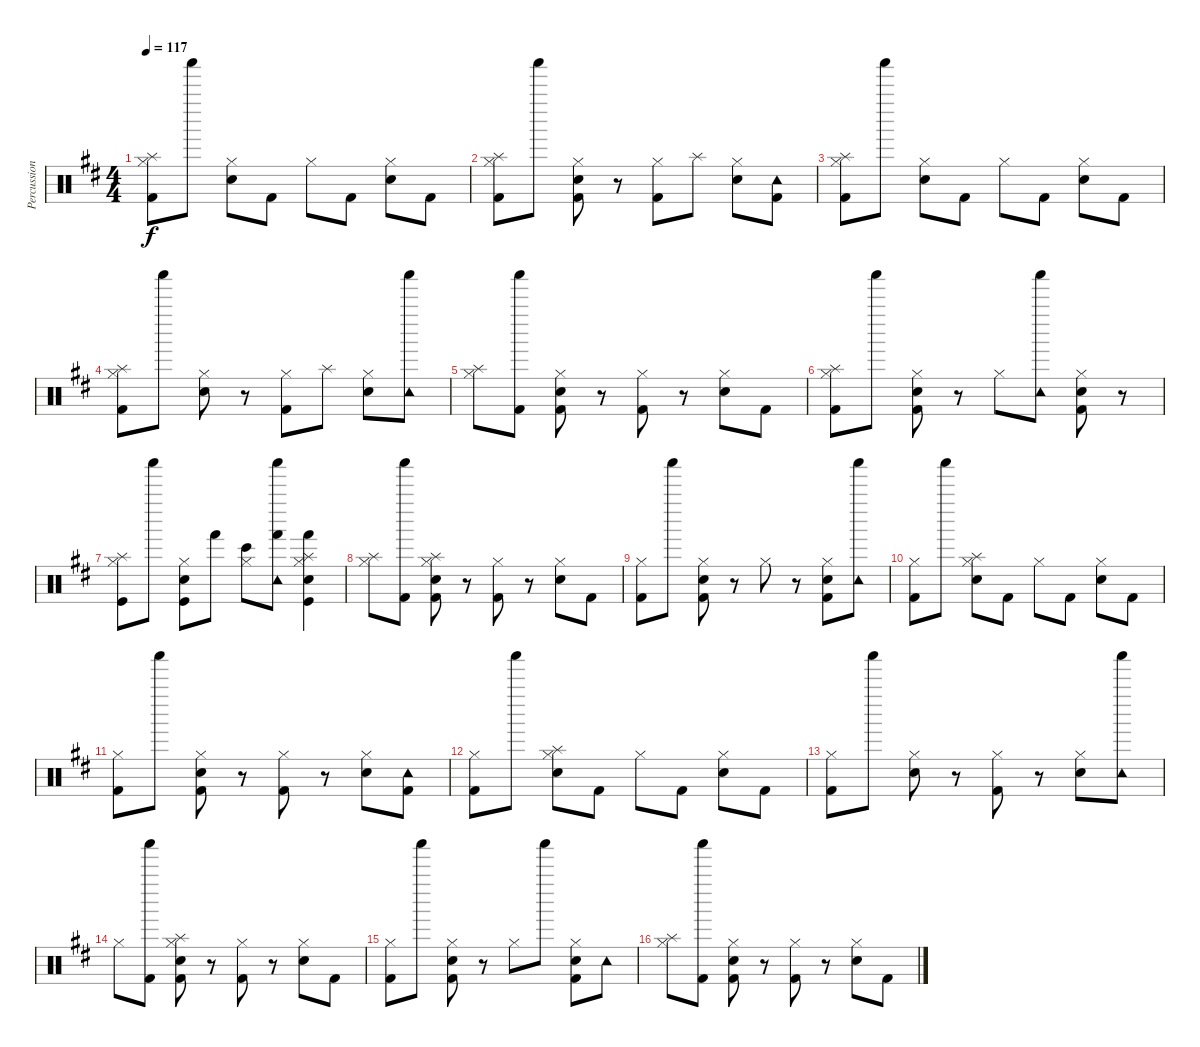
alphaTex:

\track ("Percussion" "Percussion") {instrument percussion}
\staff {score}
\articulation defaults
\ts (4 4)
\tempo 117
\clef neutral
\ks d
("Hi-Hat (closed)" "Splash (hit)" "Kick (hit) 2").8{dy f} "Shaker (hit)".8 ("Hi-Hat (closed)" "Snare (hit) 2").8 "Kick (hit) 2".8 "Hi-Hat (closed)".8 "Kick (hit) 2".8 ("Hi-Hat (closed)" "Snare (hit) 2").8 "Kick (hit) 2".8 |
("Hi-Hat (closed)" "Splash (hit)" "Kick (hit) 2").8 "Shaker (hit)".8 ("Hi-Hat (closed)" "Snare (hit) 2" "Kick (hit) 2").8 r.8 ("Hi-Hat (closed)" "Kick (hit) 2").8 "Splash (hit)".8 ("Hi-Hat (closed)" "Snare (hit) 2").8 ("Tambourine (hit)" "Kick (hit) 2").8 |
("Hi-Hat (closed)" "Splash (hit)" "Kick (hit) 2").8 "Shaker (hit)".8 ("Hi-Hat (closed)" "Snare (hit) 2").8 "Kick (hit) 2".8 "Hi-Hat (closed)".8 "Kick (hit) 2".8 ("Hi-Hat (closed)" "Snare (hit) 2").8 "Kick (hit) 2".8 |
("Hi-Hat (closed)" "Splash (hit)" "Kick (hit) 2").8 "Shaker (hit)".8 ("Hi-Hat (closed)" "Snare (hit) 2").8 r.8 ("Hi-Hat (closed)" "Kick (hit) 2").8 "Splash (hit)".8 ("Hi-Hat (closed)" "Snare (hit) 2").8 ("Shaker (hit)" "Tambourine (hit)").8 |
("Hi-Hat (closed)" "Splash (hit)").8 ("Shaker (hit)" "Kick (hit) 2").8 ("Hi-Hat (closed)" "Snare (hit) 2" "Kick (hit) 2").8 r.8 ("Hi-Hat (closed)" "Kick (hit) 2").8 r.8 ("Hi-Hat (closed)" "Snare (hit) 2").8 "Kick (hit) 2".8 |
("Hi-Hat (closed)" "Splash (hit)" "Kick (hit) 2").8 "Shaker (hit)".8 ("Hi-Hat (closed)" "Snare (hit) 2" "Kick (hit) 2").8 r.8 "Hi-Hat (closed)".8 ("Shaker (hit)" "Tambourine (hit)").8 ("Hi-Hat (closed)" "Snare (hit) 2" "Kick (hit) 2").8 r.8 |
("Hi-Hat (closed)" "Splash (hit)" "Kick (hit)").8 "Shaker (hit)".8 ("Hi-Hat (closed)" "Snare (hit) 2" "Kick (hit)").8 "Hand (hit)".8 ("Hi-Hat (closed)" "Bongo High (hit)").8 ("Shaker (hit)" "Hand (hit)" "Tambourine (hit)").8 ("Hi-Hat (closed)" "Splash (hit)" "Hand (hit)" "Snare (hit) 2" "Kick (hit)").4 |
("Hi-Hat (closed)" "Splash (hit)").8 ("Shaker (hit)" "Kick (hit) 2").8 ("Hi-Hat (closed)" "Splash (hit)" "Snare (hit) 2" "Kick (hit) 2").8 r.8 ("Hi-Hat (closed)" "Kick (hit) 2").8 r.8 ("Hi-Hat (closed)" "Snare (hit) 2").8 "Kick (hit) 2".8 |
("Hi-Hat (closed)" "Kick (hit) 2").8 "Shaker (hit)".8 ("Hi-Hat (closed)" "Snare (hit) 2" "Kick (hit) 2").8 r.8 "Hi-Hat (closed)".8 r.8 ("Hi-Hat (closed)" "Snare (hit) 2" "Kick (hit) 2").8 ("Shaker (hit)" "Tambourine (hit)").8 |
("Hi-Hat (closed)" "Kick (hit) 2").8 "Shaker (hit)".8 ("Hi-Hat (closed)" "Splash (hit)" "Snare (hit) 2").8 "Kick (hit) 2".8 "Hi-Hat (closed)".8 "Kick (hit) 2".8 ("Hi-Hat (closed)" "Snare (hit) 2").8 "Kick (hit) 2".8 |
("Hi-Hat (closed)" "Kick (hit) 2").8 "Shaker (hit)".8 ("Hi-Hat (closed)" "Snare (hit) 2" "Kick (hit) 2").8 r.8 ("Hi-Hat (closed)" "Kick (hit) 2").8 r.8 ("Hi-Hat (closed)" "Snare (hit) 2").8 ("Tambourine (hit)" "Kick (hit) 2").8 |
("Hi-Hat (closed)" "Kick (hit) 2").8 "Shaker (hit)".8 ("Hi-Hat (closed)" "Splash (hit)" "Snare (hit) 2").8 "Kick (hit) 2".8 "Hi-Hat (closed)".8 "Kick (hit) 2".8 ("Hi-Hat (closed)" "Snare (hit) 2").8 "Kick (hit) 2".8 |
("Hi-Hat (closed)" "Kick (hit) 2").8 "Shaker (hit)".8 ("Hi-Hat (closed)" "Snare (hit) 2").8 r.8 ("Hi-Hat (closed)" "Kick (hit) 2").8 r.8 ("Hi-Hat (closed)" "Snare (hit) 2").8 ("Shaker (hit)" "Tambourine (hit)").8 |
"Hi-Hat (closed)".8 ("Shaker (hit)" "Kick (hit) 2").8 ("Hi-Hat (closed)" "Splash (hit)" "Snare (hit) 2" "Kick (hit) 2").8 r.8 ("Hi-Hat (closed)" "Kick (hit) 2").8 r.8 ("Hi-Hat (closed)" "Snare (hit) 2").8 "Kick (hit) 2".8 |
("Hi-Hat (closed)" "Kick (hit) 2").8 "Shaker (hit)".8 ("Hi-Hat (closed)" "Snare (hit) 2" "Kick (hit) 2").8 r.8 "Hi-Hat (closed)".8 "Shaker (hit)".8 ("Hi-Hat (closed)" "Snare (hit) 2" "Kick (hit) 2").8 "Tambourine (hit)".8 |
("Hi-Hat (closed)" "Splash (hit)").8 ("Shaker (hit)" "Kick (hit) 2").8 ("Hi-Hat (closed)" "Snare (hit) 2" "Kick (hit) 2").8 r.8 ("Hi-Hat (closed)" "Kick (hit) 2").8 r.8 ("Hi-Hat (closed)" "Snare (hit) 2").8 "Kick (hit) 2".8
